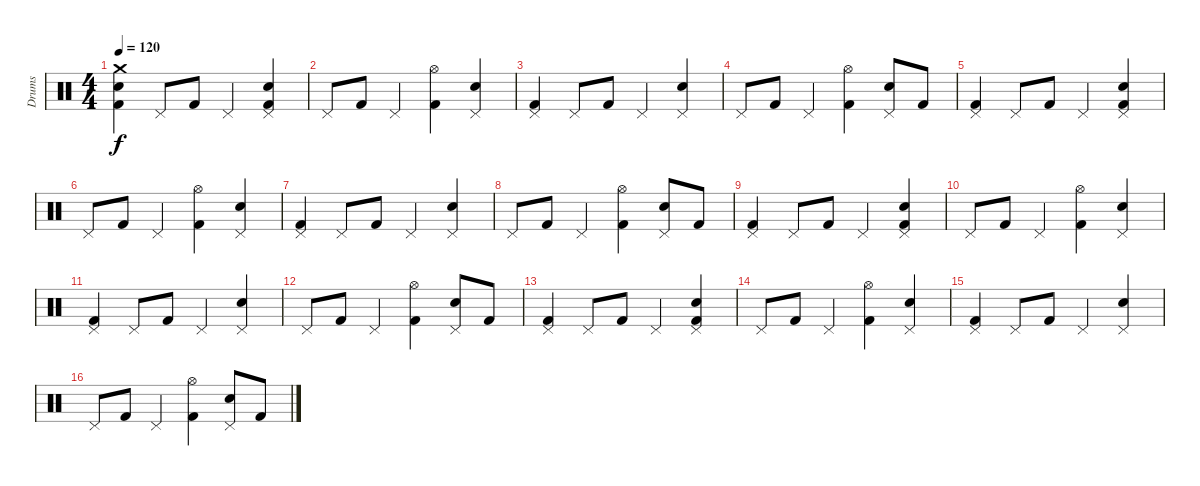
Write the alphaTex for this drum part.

\track ("Drums" "Drums") {instrument percussion}
\staff {score}
\articulation defaults
\ts (4 4)
\tempo 120
\clef neutral
\ks c
("Crash medium (hit)" "Snare (hit) 2" "Kick (hit) 2").4{dy f} "Pedal Hi-Hat (hit)".8 "Kick (hit) 2".8 "Pedal Hi-Hat (hit)".4 ("Pedal Hi-Hat (hit)" "Snare (hit) 2" "Kick (hit) 2").4 |
"Pedal Hi-Hat (hit)".8 "Kick (hit) 2".8 "Pedal Hi-Hat (hit)".4 ("Hi-Hat (open)" "Kick (hit) 2").4 ("Pedal Hi-Hat (hit)" "Snare (hit) 2").4 |
("Pedal Hi-Hat (hit)" "Kick (hit) 2").4 "Pedal Hi-Hat (hit)".8 "Kick (hit) 2".8 "Pedal Hi-Hat (hit)".4 ("Pedal Hi-Hat (hit)" "Snare (hit) 2").4 |
"Pedal Hi-Hat (hit)".8 "Kick (hit) 2".8 "Pedal Hi-Hat (hit)".4 ("Hi-Hat (open)" "Kick (hit) 2").4 ("Pedal Hi-Hat (hit)" "Snare (hit) 2").8 "Kick (hit) 2".8 |
("Pedal Hi-Hat (hit)" "Kick (hit) 2").4 "Pedal Hi-Hat (hit)".8 "Kick (hit) 2".8 "Pedal Hi-Hat (hit)".4 ("Pedal Hi-Hat (hit)" "Snare (hit) 2" "Kick (hit) 2").4 |
"Pedal Hi-Hat (hit)".8 "Kick (hit) 2".8 "Pedal Hi-Hat (hit)".4 ("Hi-Hat (open)" "Kick (hit) 2").4 ("Pedal Hi-Hat (hit)" "Snare (hit) 2").4 |
("Pedal Hi-Hat (hit)" "Kick (hit) 2").4 "Pedal Hi-Hat (hit)".8 "Kick (hit) 2".8 "Pedal Hi-Hat (hit)".4 ("Pedal Hi-Hat (hit)" "Snare (hit) 2").4 |
"Pedal Hi-Hat (hit)".8 "Kick (hit) 2".8 "Pedal Hi-Hat (hit)".4 ("Hi-Hat (open)" "Kick (hit) 2").4 ("Pedal Hi-Hat (hit)" "Snare (hit) 2").8 "Kick (hit) 2".8 |
("Pedal Hi-Hat (hit)" "Kick (hit) 2").4 "Pedal Hi-Hat (hit)".8 "Kick (hit) 2".8 "Pedal Hi-Hat (hit)".4 ("Pedal Hi-Hat (hit)" "Snare (hit) 2" "Kick (hit) 2").4 |
"Pedal Hi-Hat (hit)".8 "Kick (hit) 2".8 "Pedal Hi-Hat (hit)".4 ("Hi-Hat (open)" "Kick (hit) 2").4 ("Pedal Hi-Hat (hit)" "Snare (hit) 2").4 |
("Pedal Hi-Hat (hit)" "Kick (hit) 2").4 "Pedal Hi-Hat (hit)".8 "Kick (hit) 2".8 "Pedal Hi-Hat (hit)".4 ("Pedal Hi-Hat (hit)" "Snare (hit) 2").4 |
"Pedal Hi-Hat (hit)".8 "Kick (hit) 2".8 "Pedal Hi-Hat (hit)".4 ("Hi-Hat (open)" "Kick (hit) 2").4 ("Pedal Hi-Hat (hit)" "Snare (hit) 2").8 "Kick (hit) 2".8 |
("Pedal Hi-Hat (hit)" "Kick (hit) 2").4 "Pedal Hi-Hat (hit)".8 "Kick (hit) 2".8 "Pedal Hi-Hat (hit)".4 ("Pedal Hi-Hat (hit)" "Snare (hit) 2" "Kick (hit) 2").4 |
"Pedal Hi-Hat (hit)".8 "Kick (hit) 2".8 "Pedal Hi-Hat (hit)".4 ("Hi-Hat (open)" "Kick (hit) 2").4 ("Pedal Hi-Hat (hit)" "Snare (hit) 2").4 |
("Pedal Hi-Hat (hit)" "Kick (hit) 2").4 "Pedal Hi-Hat (hit)".8 "Kick (hit) 2".8 "Pedal Hi-Hat (hit)".4 ("Pedal Hi-Hat (hit)" "Snare (hit) 2").4 |
"Pedal Hi-Hat (hit)".8 "Kick (hit) 2".8 "Pedal Hi-Hat (hit)".4 ("Hi-Hat (open)" "Kick (hit) 2").4 ("Pedal Hi-Hat (hit)" "Snare (hit) 2").8 "Kick (hit) 2".8
